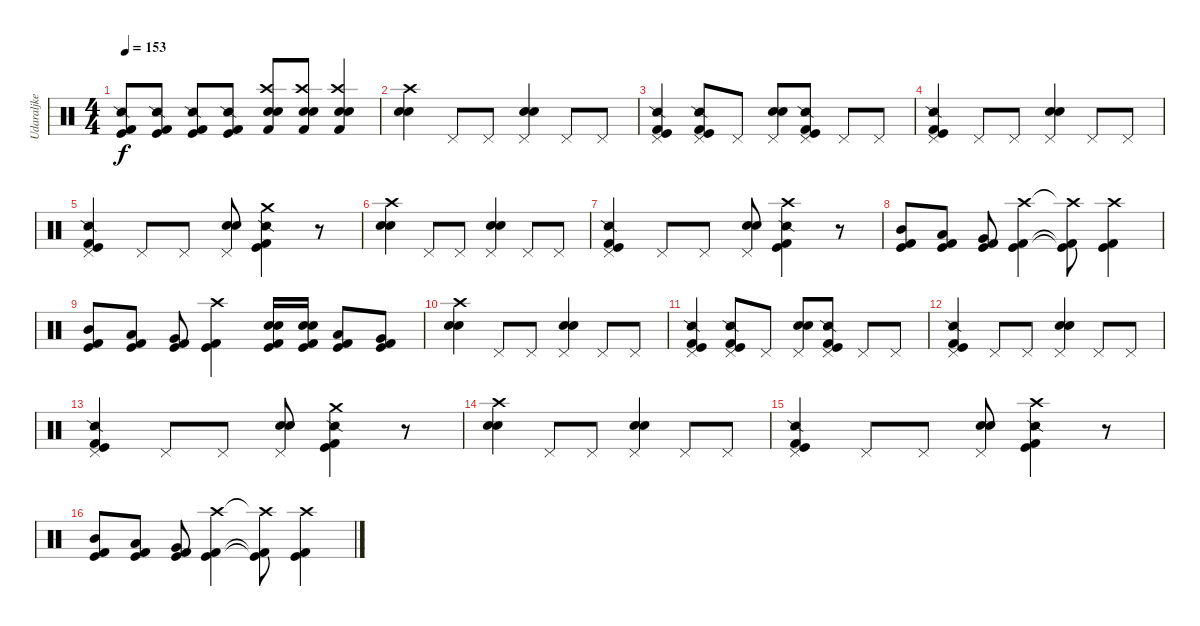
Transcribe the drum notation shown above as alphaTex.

\track ("Udaraljke" "Udaraljke") {instrument percussion}
\staff {score}
\articulation defaults
\ts (4 4)
\tempo 153
\clef neutral
\ks c
("Kick (hit) 2" "Kick (hit)" "Snare (side stick) 2").8{dy f} ("Kick (hit) 2" "Kick (hit)" "Snare (side stick) 2").8 ("Kick (hit) 2" "Kick (hit)" "Snare (side stick) 2").8 ("Kick (hit) 2" "Kick (hit)" "Snare (side stick) 2").8 ("Crash high (hit)" "Electric Snare (hit)" "Snare (hit) 2" "Kick (hit) 2").8 ("Crash high (hit)" "Electric Snare (hit)" "Snare (hit) 2" "Kick (hit) 2").8 ("Crash high (hit)" "Electric Snare (hit)" "Snare (hit) 2" "Kick (hit) 2").4 |
("Crash high (hit)" "Electric Snare (hit)" "Snare (hit) 2").4 "Pedal Hi-Hat (hit)".8 "Pedal Hi-Hat (hit)".8 ("Pedal Hi-Hat (hit)" "Electric Snare (hit)" "Snare (hit) 2").4 "Pedal Hi-Hat (hit)".8 "Pedal Hi-Hat (hit)".8 |
("Pedal Hi-Hat (hit)" "Kick (hit) 2" "Kick (hit)" "Snare (side stick) 2").4 ("Pedal Hi-Hat (hit)" "Kick (hit) 2" "Kick (hit)" "Snare (side stick) 2").8 "Pedal Hi-Hat (hit)".8 ("Pedal Hi-Hat (hit)" "Electric Snare (hit)" "Snare (hit) 2").8 ("Pedal Hi-Hat (hit)" "Kick (hit) 2" "Kick (hit)" "Snare (side stick) 2").8 "Pedal Hi-Hat (hit)".8 "Pedal Hi-Hat (hit)".8 |
("Pedal Hi-Hat (hit)" "Kick (hit) 2" "Kick (hit)" "Snare (side stick) 2").4 "Pedal Hi-Hat (hit)".8 "Pedal Hi-Hat (hit)".8 ("Pedal Hi-Hat (hit)" "Electric Snare (hit)" "Snare (hit) 2").4 "Pedal Hi-Hat (hit)".8 "Pedal Hi-Hat (hit)".8 |
("Pedal Hi-Hat (hit)" "Kick (hit) 2" "Kick (hit)" "Snare (side stick) 2").4 "Pedal Hi-Hat (hit)".8 "Pedal Hi-Hat (hit)".8 ("Pedal Hi-Hat (hit)" "Electric Snare (hit)" "Snare (hit) 2").8 ("Crash medium (hit)" "Kick (hit) 2" "Kick (hit)" "Snare (side stick) 2").4 r.8 |
("Crash high (hit)" "Electric Snare (hit)" "Snare (hit) 2").4 "Pedal Hi-Hat (hit)".8 "Pedal Hi-Hat (hit)".8 ("Pedal Hi-Hat (hit)" "Electric Snare (hit)" "Snare (hit) 2").4 "Pedal Hi-Hat (hit)".8 "Pedal Hi-Hat (hit)".8 |
("Pedal Hi-Hat (hit)" "Kick (hit) 2" "Kick (hit)" "Snare (side stick) 2").4 "Pedal Hi-Hat (hit)".8 "Pedal Hi-Hat (hit)".8 ("Pedal Hi-Hat (hit)" "Electric Snare (hit)" "Snare (hit) 2").8 ("Crash high (hit)" "Kick (hit) 2" "Kick (hit)" "Snare (side stick) 2").4 r.8 |
("Mid Tom (hit)" "Kick (hit) 2" "Kick (hit)").8 ("Low Tom (hit)" "Kick (hit) 2" "Kick (hit)").8 ("Very Low Tom (hit)" "Kick (hit) 2" "Kick (hit)").8 ("Crash high (hit)" "Kick (hit) 2" "Kick (hit)").4 ("Crash high (hit)"{t} "Kick (hit) 2"{t} "Kick (hit)"{t}).8 ("Crash high (hit)" "Kick (hit) 2" "Kick (hit)").4 |
("Mid Tom (hit)" "Kick (hit) 2" "Kick (hit)").8 ("Low Tom (hit)" "Kick (hit) 2" "Kick (hit)").8 ("Very Low Tom (hit)" "Kick (hit) 2" "Kick (hit)").8 ("Crash high (hit)" "Kick (hit) 2" "Kick (hit)").4 ("Electric Snare (hit)" "Snare (hit) 2" "Kick (hit) 2" "Kick (hit)").16 ("Electric Snare (hit)" "Snare (hit) 2" "Kick (hit) 2" "Kick (hit)").16 ("Low Tom (hit)" "Kick (hit) 2" "Kick (hit)").8 ("Very Low Tom (hit)" "Kick (hit) 2" "Kick (hit)").8 |
("Crash high (hit)" "Electric Snare (hit)" "Snare (hit) 2").4 "Pedal Hi-Hat (hit)".8 "Pedal Hi-Hat (hit)".8 ("Pedal Hi-Hat (hit)" "Electric Snare (hit)" "Snare (hit) 2").4 "Pedal Hi-Hat (hit)".8 "Pedal Hi-Hat (hit)".8 |
("Pedal Hi-Hat (hit)" "Kick (hit) 2" "Kick (hit)" "Snare (side stick) 2").4 ("Pedal Hi-Hat (hit)" "Kick (hit) 2" "Kick (hit)" "Snare (side stick) 2").8 "Pedal Hi-Hat (hit)".8 ("Pedal Hi-Hat (hit)" "Electric Snare (hit)" "Snare (hit) 2").8 ("Pedal Hi-Hat (hit)" "Kick (hit) 2" "Kick (hit)" "Snare (side stick) 2").8 "Pedal Hi-Hat (hit)".8 "Pedal Hi-Hat (hit)".8 |
("Pedal Hi-Hat (hit)" "Kick (hit) 2" "Kick (hit)" "Snare (side stick) 2").4 "Pedal Hi-Hat (hit)".8 "Pedal Hi-Hat (hit)".8 ("Pedal Hi-Hat (hit)" "Electric Snare (hit)" "Snare (hit) 2").4 "Pedal Hi-Hat (hit)".8 "Pedal Hi-Hat (hit)".8 |
("Pedal Hi-Hat (hit)" "Kick (hit) 2" "Kick (hit)" "Snare (side stick) 2").4 "Pedal Hi-Hat (hit)".8 "Pedal Hi-Hat (hit)".8 ("Pedal Hi-Hat (hit)" "Electric Snare (hit)" "Snare (hit) 2").8 ("Crash medium (hit)" "Kick (hit) 2" "Kick (hit)" "Snare (side stick) 2").4 r.8 |
("Crash high (hit)" "Electric Snare (hit)" "Snare (hit) 2").4 "Pedal Hi-Hat (hit)".8 "Pedal Hi-Hat (hit)".8 ("Pedal Hi-Hat (hit)" "Electric Snare (hit)" "Snare (hit) 2").4 "Pedal Hi-Hat (hit)".8 "Pedal Hi-Hat (hit)".8 |
("Pedal Hi-Hat (hit)" "Kick (hit) 2" "Kick (hit)" "Snare (side stick) 2").4 "Pedal Hi-Hat (hit)".8 "Pedal Hi-Hat (hit)".8 ("Pedal Hi-Hat (hit)" "Electric Snare (hit)" "Snare (hit) 2").8 ("Crash high (hit)" "Kick (hit) 2" "Kick (hit)" "Snare (side stick) 2").4 r.8 |
("Mid Tom (hit)" "Kick (hit) 2" "Kick (hit)").8 ("Low Tom (hit)" "Kick (hit) 2" "Kick (hit)").8 ("Very Low Tom (hit)" "Kick (hit) 2" "Kick (hit)").8 ("Crash high (hit)" "Kick (hit) 2" "Kick (hit)").4 ("Crash high (hit)"{t} "Kick (hit) 2"{t} "Kick (hit)"{t}).8 ("Crash high (hit)" "Kick (hit) 2" "Kick (hit)").4
